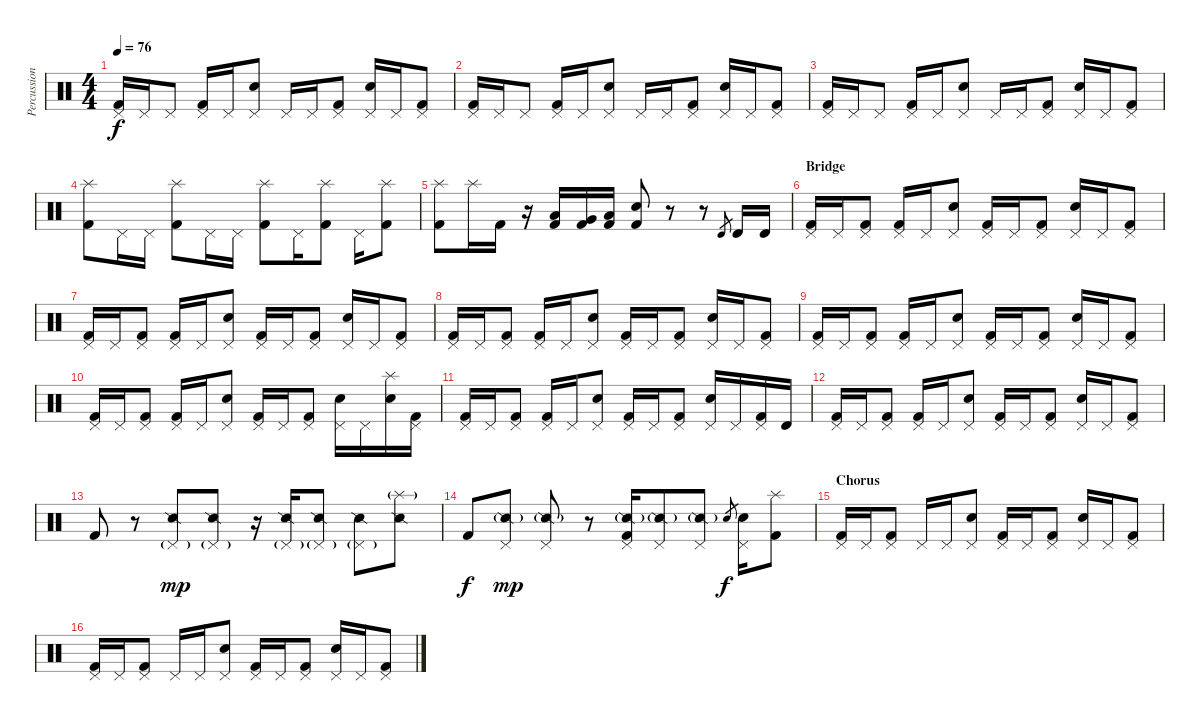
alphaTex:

\track ("Percussion" "Percussion") {instrument percussion}
\staff {score}
\articulation defaults
\ts (4 4)
\tempo 76
\clef neutral
\ks c
("Pedal Hi-Hat (hit)" "Kick (hit) 2").16{dy f} "Pedal Hi-Hat (hit)".16 "Pedal Hi-Hat (hit)".8 ("Pedal Hi-Hat (hit)" "Kick (hit) 2").16 "Pedal Hi-Hat (hit)".16 ("Pedal Hi-Hat (hit)" "Electric Snare (hit)").8 "Pedal Hi-Hat (hit)".16 "Pedal Hi-Hat (hit)".16 ("Pedal Hi-Hat (hit)" "Kick (hit) 2").8 ("Pedal Hi-Hat (hit)" "Electric Snare (hit)").16 "Pedal Hi-Hat (hit)".16 ("Pedal Hi-Hat (hit)" "Kick (hit) 2").8 |
("Pedal Hi-Hat (hit)" "Kick (hit) 2").16 "Pedal Hi-Hat (hit)".16 "Pedal Hi-Hat (hit)".8 ("Pedal Hi-Hat (hit)" "Kick (hit) 2").16 "Pedal Hi-Hat (hit)".16 ("Pedal Hi-Hat (hit)" "Electric Snare (hit)").8 "Pedal Hi-Hat (hit)".16 "Pedal Hi-Hat (hit)".16 ("Pedal Hi-Hat (hit)" "Kick (hit) 2").8 ("Pedal Hi-Hat (hit)" "Electric Snare (hit)").16 "Pedal Hi-Hat (hit)".16 ("Pedal Hi-Hat (hit)" "Kick (hit) 2").8 |
("Pedal Hi-Hat (hit)" "Kick (hit) 2").16 "Pedal Hi-Hat (hit)".16 "Pedal Hi-Hat (hit)".8 ("Pedal Hi-Hat (hit)" "Kick (hit) 2").16 "Pedal Hi-Hat (hit)".16 ("Pedal Hi-Hat (hit)" "Electric Snare (hit)").8 "Pedal Hi-Hat (hit)".16 "Pedal Hi-Hat (hit)".16 ("Pedal Hi-Hat (hit)" "Kick (hit) 2").8 ("Pedal Hi-Hat (hit)" "Electric Snare (hit)").16 "Pedal Hi-Hat (hit)".16 ("Pedal Hi-Hat (hit)" "Kick (hit) 2").8 |
("Splash (hit)" "Kick (hit) 2").8 "Pedal Hi-Hat (hit)".16 "Pedal Hi-Hat (hit)".16 ("Splash (hit)" "Kick (hit) 2").8 "Pedal Hi-Hat (hit)".16 "Pedal Hi-Hat (hit)".16 ("Splash (hit)" "Kick (hit) 2").8 "Pedal Hi-Hat (hit)".16 ("Splash (hit)" "Kick (hit) 2").8 "Pedal Hi-Hat (hit)".16 ("Splash (hit)" "Kick (hit) 2").8 |
("Splash (hit)" "Kick (hit) 2").8 "Splash (hit)".16 "Kick (hit) 2".16 r.16 ("Low Tom (hit)" "Kick (hit) 2").16 ("Very Low Tom (hit)" "Kick (hit) 2").16 ("Low Floor Tom (hit)" "Kick (hit) 2").16 ("Electric Snare (hit)" "Kick (hit) 2").8 r.8 r.8 "Timbale high (hit)".8{gr} "Timbale high (hit)".16 "Timbale high (hit)".16 |
\section ("" "Bridge")
("Pedal Hi-Hat (hit)" "Kick (hit) 2").16 "Pedal Hi-Hat (hit)".16 ("Pedal Hi-Hat (hit)" "Kick (hit) 2").8 ("Pedal Hi-Hat (hit)" "Kick (hit) 2").16 "Pedal Hi-Hat (hit)".16 ("Pedal Hi-Hat (hit)" "Electric Snare (hit)").8 ("Pedal Hi-Hat (hit)" "Kick (hit) 2").16 "Pedal Hi-Hat (hit)".16 ("Pedal Hi-Hat (hit)" "Kick (hit) 2").8 ("Pedal Hi-Hat (hit)" "Electric Snare (hit)").16 "Pedal Hi-Hat (hit)".16 ("Pedal Hi-Hat (hit)" "Kick (hit) 2").8 |
("Pedal Hi-Hat (hit)" "Kick (hit) 2").16 "Pedal Hi-Hat (hit)".16 ("Pedal Hi-Hat (hit)" "Kick (hit) 2").8 ("Pedal Hi-Hat (hit)" "Kick (hit) 2").16 "Pedal Hi-Hat (hit)".16 ("Pedal Hi-Hat (hit)" "Electric Snare (hit)").8 ("Pedal Hi-Hat (hit)" "Kick (hit) 2").16 "Pedal Hi-Hat (hit)".16 ("Pedal Hi-Hat (hit)" "Kick (hit) 2").8 ("Pedal Hi-Hat (hit)" "Electric Snare (hit)").16 "Pedal Hi-Hat (hit)".16 ("Pedal Hi-Hat (hit)" "Kick (hit) 2").8 |
("Pedal Hi-Hat (hit)" "Kick (hit) 2").16 "Pedal Hi-Hat (hit)".16 ("Pedal Hi-Hat (hit)" "Kick (hit) 2").8 ("Pedal Hi-Hat (hit)" "Kick (hit) 2").16 "Pedal Hi-Hat (hit)".16 ("Pedal Hi-Hat (hit)" "Electric Snare (hit)").8 ("Pedal Hi-Hat (hit)" "Kick (hit) 2").16 "Pedal Hi-Hat (hit)".16 ("Pedal Hi-Hat (hit)" "Kick (hit) 2").8 ("Pedal Hi-Hat (hit)" "Electric Snare (hit)").16 "Pedal Hi-Hat (hit)".16 ("Pedal Hi-Hat (hit)" "Kick (hit) 2").8 |
("Pedal Hi-Hat (hit)" "Kick (hit) 2").16 "Pedal Hi-Hat (hit)".16 ("Pedal Hi-Hat (hit)" "Kick (hit) 2").8 ("Pedal Hi-Hat (hit)" "Kick (hit) 2").16 "Pedal Hi-Hat (hit)".16 ("Pedal Hi-Hat (hit)" "Electric Snare (hit)").8 ("Pedal Hi-Hat (hit)" "Kick (hit) 2").16 "Pedal Hi-Hat (hit)".16 ("Pedal Hi-Hat (hit)" "Kick (hit) 2").8 ("Pedal Hi-Hat (hit)" "Electric Snare (hit)").16 "Pedal Hi-Hat (hit)".16 ("Pedal Hi-Hat (hit)" "Kick (hit) 2").8 |
("Pedal Hi-Hat (hit)" "Kick (hit) 2").16 "Pedal Hi-Hat (hit)".16 ("Pedal Hi-Hat (hit)" "Kick (hit) 2").8 ("Pedal Hi-Hat (hit)" "Kick (hit) 2").16 "Pedal Hi-Hat (hit)".16 ("Pedal Hi-Hat (hit)" "Electric Snare (hit)").8 ("Pedal Hi-Hat (hit)" "Kick (hit) 2").16 "Pedal Hi-Hat (hit)".16 ("Pedal Hi-Hat (hit)" "Kick (hit) 2").8 ("Pedal Hi-Hat (hit)" "Electric Snare (hit)").16 "Pedal Hi-Hat (hit)".16 ("Splash (hit)" "Electric Snare (hit)").16 ("Pedal Hi-Hat (hit)" "Kick (hit) 2").16 |
("Pedal Hi-Hat (hit)" "Kick (hit) 2").16 "Pedal Hi-Hat (hit)".16 ("Pedal Hi-Hat (hit)" "Kick (hit) 2").8 ("Pedal Hi-Hat (hit)" "Kick (hit) 2").16 "Pedal Hi-Hat (hit)".16 ("Pedal Hi-Hat (hit)" "Electric Snare (hit)").8 ("Pedal Hi-Hat (hit)" "Kick (hit) 2").16 "Pedal Hi-Hat (hit)".16 ("Pedal Hi-Hat (hit)" "Kick (hit) 2").8 ("Pedal Hi-Hat (hit)" "Electric Snare (hit)").16 "Pedal Hi-Hat (hit)".16 ("Pedal Hi-Hat (hit)" "Kick (hit) 2").16 "Timbale high (hit)".16 |
("Pedal Hi-Hat (hit)" "Kick (hit) 2").16 "Pedal Hi-Hat (hit)".16 ("Pedal Hi-Hat (hit)" "Kick (hit) 2").8 ("Pedal Hi-Hat (hit)" "Kick (hit) 2").16 "Pedal Hi-Hat (hit)".16 ("Pedal Hi-Hat (hit)" "Electric Snare (hit)").8 ("Pedal Hi-Hat (hit)" "Kick (hit) 2").16 "Pedal Hi-Hat (hit)".16 ("Pedal Hi-Hat (hit)" "Kick (hit) 2").8 ("Pedal Hi-Hat (hit)" "Electric Snare (hit)").16 "Pedal Hi-Hat (hit)".16 ("Pedal Hi-Hat (hit)" "Kick (hit) 2").8 |
"Kick (hit) 2".8 r.8 ("Pedal Hi-Hat (hit)"{g} "Snare (side stick) 2").8{dy mp} ("Pedal Hi-Hat (hit)"{g} "Snare (side stick) 2").8 r.16 ("Pedal Hi-Hat (hit)"{g} "Snare (side stick) 2").16 ("Pedal Hi-Hat (hit)"{g} "Snare (side stick) 2").8 ("Pedal Hi-Hat (hit)"{g} "Snare (side stick) 2").8 ("Splash (hit)"{g} "Snare (side stick) 2").8 |
"Kick (hit) 2".8{dy f} ("Pedal Hi-Hat (hit)" "Snare (side stick) 2"{g}).8{dy mp} ("Pedal Hi-Hat (hit)" "Snare (side stick) 2"{g}).8 r.8 ("Pedal Hi-Hat (hit)" "Snare (side stick) 2"{g} "Kick (hit) 2").16 ("Pedal Hi-Hat (hit)" "Snare (side stick) 2"{g}).8 ("Pedal Hi-Hat (hit)" "Snare (side stick) 2"{g}).8 "Electric Snare (hit)".8{gr dy f} ("Pedal Hi-Hat (hit)" "Electric Snare (hit)").16 ("Splash (hit)" "Kick (hit) 2").8 |
\section ("" "Chorus")
("Pedal Hi-Hat (hit)" "Kick (hit) 2").16 "Pedal Hi-Hat (hit)".16 ("Pedal Hi-Hat (hit)" "Kick (hit) 2").8 "Pedal Hi-Hat (hit)".16 "Pedal Hi-Hat (hit)".16 ("Pedal Hi-Hat (hit)" "Electric Snare (hit)").8 ("Pedal Hi-Hat (hit)" "Kick (hit) 2").16 "Pedal Hi-Hat (hit)".16 ("Pedal Hi-Hat (hit)" "Kick (hit) 2").8 ("Pedal Hi-Hat (hit)" "Electric Snare (hit)").16 "Pedal Hi-Hat (hit)".16 ("Pedal Hi-Hat (hit)" "Kick (hit) 2").8 |
("Pedal Hi-Hat (hit)" "Kick (hit) 2").16 "Pedal Hi-Hat (hit)".16 ("Pedal Hi-Hat (hit)" "Kick (hit) 2").8 "Pedal Hi-Hat (hit)".16 "Pedal Hi-Hat (hit)".16 ("Pedal Hi-Hat (hit)" "Electric Snare (hit)").8 ("Pedal Hi-Hat (hit)" "Kick (hit) 2").16 "Pedal Hi-Hat (hit)".16 ("Pedal Hi-Hat (hit)" "Kick (hit) 2").8 ("Pedal Hi-Hat (hit)" "Electric Snare (hit)").16 "Pedal Hi-Hat (hit)".16 ("Pedal Hi-Hat (hit)" "Kick (hit) 2").8
